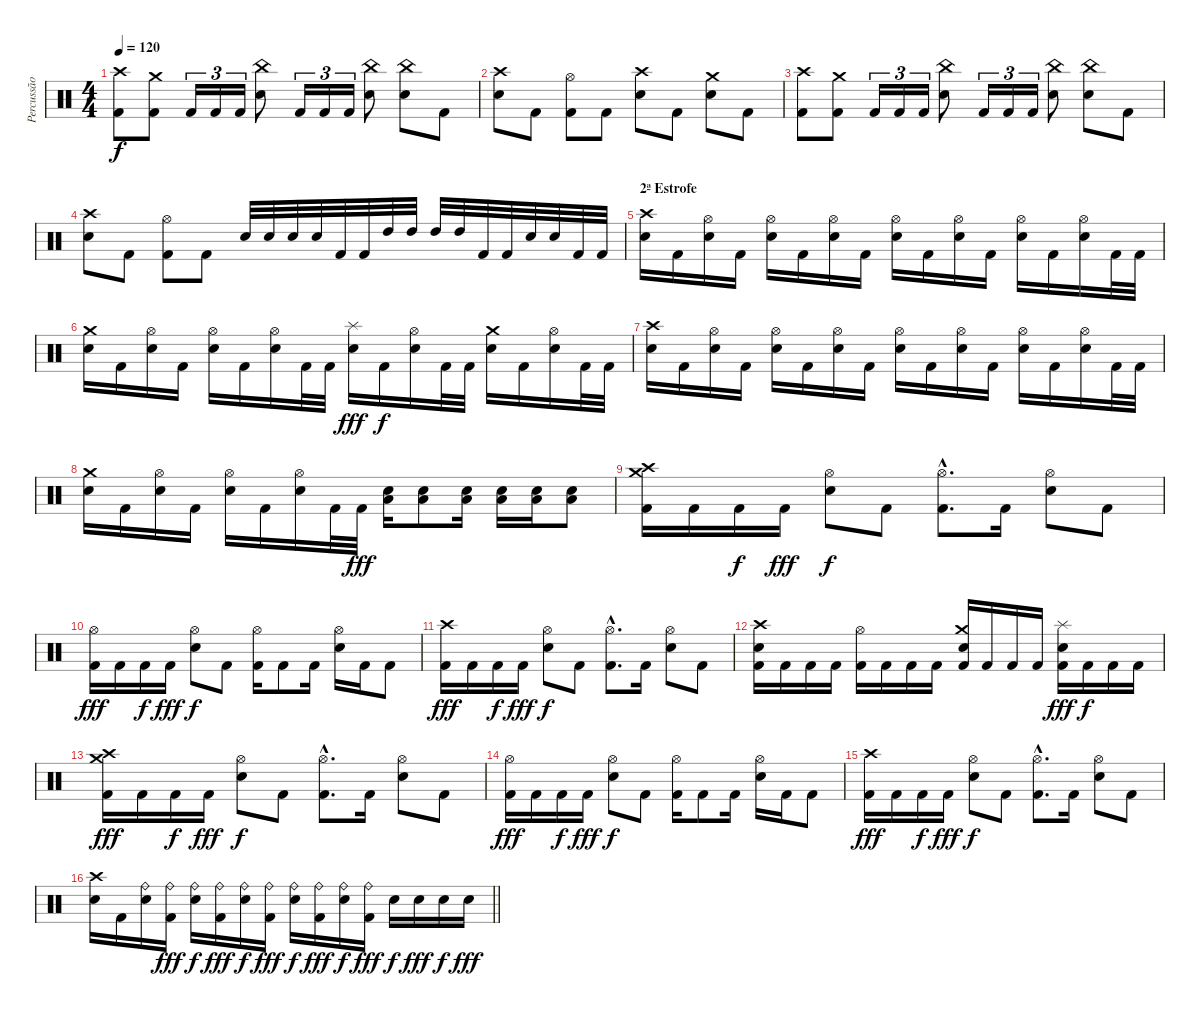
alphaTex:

\track ("Percussão" "Percussão") {instrument percussion}
\staff {score}
\articulation defaults
\ts (4 4)
\tempo 120
\clef neutral
\ks c
("Crash high (hit)" "Kick (hit) 2").8{dy f} ("Crash medium (hit)" "Kick (hit) 2").8 "Kick (hit) 2".16{tu (3 2)} "Kick (hit) 2".16{tu (3 2)} "Kick (hit) 2".16{tu (3 2)} ("China (hit)" "Electric Snare (hit)").8 "Kick (hit) 2".16{tu (3 2)} "Kick (hit) 2".16{tu (3 2)} "Kick (hit) 2".16{tu (3 2)} ("China (hit)" "Electric Snare (hit)").8 ("China (hit)" "Electric Snare (hit)").8 "Kick (hit) 2".8 |
("Crash high (hit)" "Electric Snare (hit)").8 "Kick (hit) 2".8 ("Hi-Hat (open)" "Kick (hit) 2").8 "Kick (hit) 2".8 ("Crash high (hit)" "Electric Snare (hit)").8 "Kick (hit) 2".8 ("Crash medium (hit)" "Electric Snare (hit)").8 "Kick (hit) 2".8 |
("Crash high (hit)" "Kick (hit) 2").8 ("Crash medium (hit)" "Kick (hit) 2").8 "Kick (hit) 2".16{tu (3 2)} "Kick (hit) 2".16{tu (3 2)} "Kick (hit) 2".16{tu (3 2)} ("China (hit)" "Electric Snare (hit)").8 "Kick (hit) 2".16{tu (3 2)} "Kick (hit) 2".16{tu (3 2)} "Kick (hit) 2".16{tu (3 2)} ("China (hit)" "Electric Snare (hit)").8 ("China (hit)" "Electric Snare (hit)").8 "Kick (hit) 2".8 |
("Crash high (hit)" "Electric Snare (hit)").8 "Kick (hit) 2".8 ("Hi-Hat (open)" "Kick (hit) 2").8 "Kick (hit) 2".8 "Electric Snare (hit)".32 "Electric Snare (hit)".32 "Electric Snare (hit)".32 "Electric Snare (hit)".32 "Kick (hit) 2".32 "Kick (hit) 2".32 "High Tom (hit)".32 "High Tom (hit)".32 "High Tom (hit)".32 "High Tom (hit)".32 "Kick (hit) 2".32 "Kick (hit) 2".32 "Electric Snare (hit)".32 "Electric Snare (hit)".32 "Kick (hit) 2".32 "Kick (hit) 2".32 |
\section ("" "2ª Estrofe")
("Crash high (hit)" "Electric Snare (hit)").16 "Kick (hit) 2".16 ("Hi-Hat (open)" "Electric Snare (hit)").16 "Kick (hit) 2".16 ("Hi-Hat (open)" "Electric Snare (hit)").16 "Kick (hit) 2".16 ("Hi-Hat (open)" "Electric Snare (hit)").16 "Kick (hit) 2".16 ("Hi-Hat (open)" "Electric Snare (hit)").16 "Kick (hit) 2".16 ("Hi-Hat (open)" "Electric Snare (hit)").16 "Kick (hit) 2".16 ("Hi-Hat (open)" "Electric Snare (hit)").16 "Kick (hit) 2".16 ("Hi-Hat (open)" "Electric Snare (hit)").16 "Kick (hit) 2".32 "Kick (hit) 2".32 |
("Crash medium (hit)" "Electric Snare (hit)").16 "Kick (hit) 2".16 ("Hi-Hat (open)" "Electric Snare (hit)").16 "Kick (hit) 2".16 ("Hi-Hat (open)" "Electric Snare (hit)").16 "Kick (hit) 2".16 ("Hi-Hat (open)" "Electric Snare (hit)").16 "Kick (hit) 2".32 "Kick (hit) 2".32 ("Splash (hit)" "Electric Snare (hit)").16{dy fff} "Kick (hit) 2".16{dy f} ("Hi-Hat (open)" "Electric Snare (hit)").16 "Kick (hit) 2".32 "Kick (hit) 2".32 ("Crash medium (hit)" "Electric Snare (hit)").16 "Kick (hit) 2".16 ("Hi-Hat (open)" "Electric Snare (hit)").16 "Kick (hit) 2".32 "Kick (hit) 2".32 |
("Crash high (hit)" "Electric Snare (hit)").16 "Kick (hit) 2".16 ("Hi-Hat (open)" "Electric Snare (hit)").16 "Kick (hit) 2".16 ("Hi-Hat (open)" "Electric Snare (hit)").16 "Kick (hit) 2".16 ("Hi-Hat (open)" "Electric Snare (hit)").16 "Kick (hit) 2".16 ("Hi-Hat (open)" "Electric Snare (hit)").16 "Kick (hit) 2".16 ("Hi-Hat (open)" "Electric Snare (hit)").16 "Kick (hit) 2".16 ("Hi-Hat (open)" "Electric Snare (hit)").16 "Kick (hit) 2".16 ("Hi-Hat (open)" "Electric Snare (hit)").16 "Kick (hit) 2".32 "Kick (hit) 2".32 |
("Crash medium (hit)" "Electric Snare (hit)").16 "Kick (hit) 2".16 ("Hi-Hat (open)" "Electric Snare (hit)").16 "Kick (hit) 2".16 ("Hi-Hat (open)" "Electric Snare (hit)").16 "Kick (hit) 2".16 ("Hi-Hat (open)" "Electric Snare (hit)").16 "Kick (hit) 2".32 "Kick (hit) 2".32{dy fff} ("Electric Snare (hit)" "Low Tom (hit)").16 ("Electric Snare (hit)" "Low Tom (hit)").8 ("Electric Snare (hit)" "Low Tom (hit)").16 ("Electric Snare (hit)" "Low Tom (hit)").16 ("Electric Snare (hit)" "Low Tom (hit)").16 ("Electric Snare (hit)" "Low Tom (hit)").8 |
("Crash medium (hit)" "Crash high (hit)" "Kick (hit) 2").16 "Kick (hit) 2".16 "Kick (hit) 2".16{dy f} "Kick (hit) 2".16{dy fff} ("Hi-Hat (open)" "Electric Snare (hit)").8{dy f} "Kick (hit) 2".8 ("Hi-Hat (open)"{hac} "Kick (hit) 2"{hac}).8{d} "Kick (hit) 2".16 ("Hi-Hat (open)" "Electric Snare (hit)").8 "Kick (hit) 2".8 |
("Hi-Hat (open)" "Kick (hit) 2").16{dy fff} "Kick (hit) 2".16 "Kick (hit) 2".16{dy f} "Kick (hit) 2".16{dy fff} ("Hi-Hat (open)" "Electric Snare (hit)").8{dy f} "Kick (hit) 2".8 ("Hi-Hat (open)" "Kick (hit) 2").16 "Kick (hit) 2".8 "Kick (hit) 2".16 ("Hi-Hat (open)" "Electric Snare (hit)").16 "Kick (hit) 2".16 "Kick (hit) 2".8 |
("Crash high (hit)" "Kick (hit) 2").16{dy fff} "Kick (hit) 2".16 "Kick (hit) 2".16{dy f} "Kick (hit) 2".16{dy fff} ("Hi-Hat (open)" "Electric Snare (hit)").8{dy f} "Kick (hit) 2".8 ("Hi-Hat (open)"{hac} "Kick (hit) 2"{hac}).8{d} "Kick (hit) 2".16 ("Hi-Hat (open)" "Electric Snare (hit)").8 "Kick (hit) 2".8 |
("Crash high (hit)" "Electric Snare (hit)" "Kick (hit) 2").16 "Kick (hit) 2".16 "Kick (hit) 2".16 "Kick (hit) 2".16 ("Hi-Hat (open)" "Kick (hit) 2").16 "Kick (hit) 2".16 "Kick (hit) 2".16 "Kick (hit) 2".16 ("Crash medium (hit)" "Electric Snare (hit)" "Kick (hit) 2").16 "Kick (hit) 2".16 "Kick (hit) 2".16 "Kick (hit) 2".16 ("Splash (hit)" "Electric Snare (hit)" "Kick (hit) 2").16{dy fff} "Kick (hit) 2".16{dy f} "Kick (hit) 2".16 "Kick (hit) 2".16 |
("Crash medium (hit)" "Crash high (hit)" "Kick (hit) 2").16{dy fff} "Kick (hit) 2".16 "Kick (hit) 2".16{dy f} "Kick (hit) 2".16{dy fff} ("Hi-Hat (open)" "Electric Snare (hit)").8{dy f} "Kick (hit) 2".8 ("Hi-Hat (open)"{hac} "Kick (hit) 2"{hac}).8{d} "Kick (hit) 2".16 ("Hi-Hat (open)" "Electric Snare (hit)").8 "Kick (hit) 2".8 |
("Hi-Hat (open)" "Kick (hit) 2").16{dy fff} "Kick (hit) 2".16 "Kick (hit) 2".16{dy f} "Kick (hit) 2".16{dy fff} ("Hi-Hat (open)" "Electric Snare (hit)").8{dy f} "Kick (hit) 2".8 ("Hi-Hat (open)" "Kick (hit) 2").16 "Kick (hit) 2".8 "Kick (hit) 2".16 ("Hi-Hat (open)" "Electric Snare (hit)").16 "Kick (hit) 2".16 "Kick (hit) 2".8 |
("Crash high (hit)" "Kick (hit) 2").16{dy fff} "Kick (hit) 2".16 "Kick (hit) 2".16{dy f} "Kick (hit) 2".16{dy fff} ("Hi-Hat (open)" "Electric Snare (hit)").8{dy f} "Kick (hit) 2".8 ("Hi-Hat (open)"{hac} "Kick (hit) 2"{hac}).8{d} "Kick (hit) 2".16 ("Hi-Hat (open)" "Electric Snare (hit)").8 "Kick (hit) 2".8 |
\barLineRight lightlight
("Crash high (hit)" "Electric Snare (hit)").16 "Kick (hit) 2".16 ("Ride (bell)" "Electric Snare (hit)").16 ("Ride (bell)" "Kick (hit) 2").16{dy fff} ("Ride (bell)" "Electric Snare (hit)").16{dy f} ("Ride (bell)" "Kick (hit) 2").16{dy fff} ("Ride (bell)" "Electric Snare (hit)").16{dy f} ("Ride (bell)" "Kick (hit) 2").16{dy fff} ("Ride (bell)" "Electric Snare (hit)").16{dy f} ("Ride (bell)" "Kick (hit) 2").16{dy fff} ("Ride (bell)" "Electric Snare (hit)").16{dy f} ("Ride (bell)" "Kick (hit) 2").16{dy fff} "Electric Snare (hit)".16{dy f} "Electric Snare (hit)".16{dy fff} "Electric Snare (hit)".16{dy f} "Electric Snare (hit)".16{dy fff}
